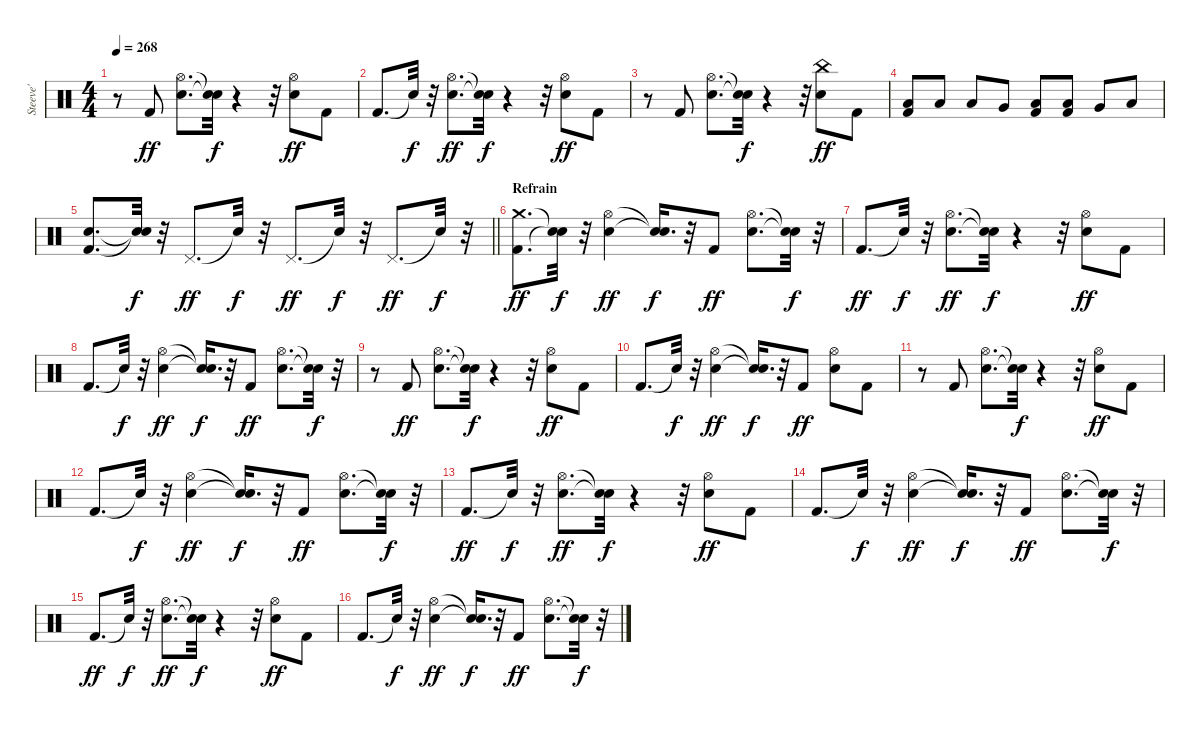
\track ("Steeve'" "Steeve'") {instrument percussion}
\staff {score}
\articulation defaults
\ts (4 4)
\tempo 268
\clef neutral
\ks c
r.8{dy f} "Kick (hit) 2".8{dy ff} ("Electric Snare (hit)" "Hi-Hat (open)").8{d} ("Snare (hit)"{t} "Snare (hit)"{t}).32{dy f} r.4 r.32 ("Electric Snare (hit)" "Hi-Hat (open)").8{dy ff} "Kick (hit) 2".8 |
"Kick (hit) 2".8{d} "Snare (hit)"{t}.32{dy f} r.32 ("Electric Snare (hit)" "Hi-Hat (open)").8{d dy ff} ("Snare (hit)"{t} "Snare (hit)"{t}).32{dy f} r.4 r.32 ("Electric Snare (hit)" "Hi-Hat (open)").8{dy ff} "Kick (hit) 2".8 |
r.8 "Kick (hit) 2".8 ("Electric Snare (hit)" "Hi-Hat (open)").8{d} ("Snare (hit)"{t} "Snare (hit)"{t}).32{dy f} r.4 r.32 ("Electric Snare (hit)" "China (hit)").8{dy ff} "Kick (hit) 2".8 |
("Kick (hit) 2" "Low Floor Tom (hit)").8 "Low Floor Tom (hit)".8 "Low Tom (hit)".8 "Very Low Tom (hit)".8 ("Kick (hit) 2" "Low Floor Tom (hit)").8 ("Kick (hit) 2" "Low Tom (hit)").8 "Very Low Tom (hit)".8 "Low Floor Tom (hit)".8 |
\barLineRight lightlight
("Kick (hit) 2" "Electric Snare (hit)").8{d} ("Snare (hit)"{t} "Snare (hit)"{t}).32{dy f} r.32 "Pedal Hi-Hat (hit)".8{d dy ff} "Snare (hit)"{t}.32{dy f} r.32 "Pedal Hi-Hat (hit)".8{d dy ff} "Snare (hit)"{t}.32{dy f} r.32 "Pedal Hi-Hat (hit)".8{d dy ff} "Snare (hit)"{t}.32{dy f} r.32 |
\section ("" "Refrain")
("Kick (hit) 2" "Crash medium (hit)").8{d dy ff} ("Snare (hit)"{t} "Snare (hit)"{t}).32{dy f} r.32 ("Electric Snare (hit)" "Hi-Hat (open)").4{dy ff} ("Snare (hit)"{t} "Snare (hit)"{t}).16{d dy f} r.32 "Kick (hit) 2".8{dy ff} ("Electric Snare (hit)" "Hi-Hat (open)").8{d} ("Snare (hit)"{t} "Snare (hit)"{t}).32{dy f} r.32 |
"Kick (hit) 2".8{d dy ff} "Snare (hit)"{t}.32{dy f} r.32 ("Electric Snare (hit)" "Hi-Hat (open)").8{d dy ff} ("Snare (hit)"{t} "Snare (hit)"{t}).32{dy f} r.4 r.32 ("Electric Snare (hit)" "Hi-Hat (open)").8{dy ff} "Kick (hit) 2".8 |
"Kick (hit) 2".8{d} "Snare (hit)"{t}.32{dy f} r.32 ("Electric Snare (hit)" "Hi-Hat (open)").4{dy ff} ("Snare (hit)"{t} "Snare (hit)"{t}).16{d dy f} r.32 "Kick (hit) 2".8{dy ff} ("Electric Snare (hit)" "Hi-Hat (open)").8{d} ("Snare (hit)"{t} "Snare (hit)"{t}).32{dy f} r.32 |
r.8 "Kick (hit) 2".8{dy ff} ("Electric Snare (hit)" "Hi-Hat (open)").8{d} ("Snare (hit)"{t} "Snare (hit)"{t}).32{dy f} r.4 r.32 ("Electric Snare (hit)" "Hi-Hat (open)").8{dy ff} "Kick (hit) 2".8 |
"Kick (hit) 2".8{d} "Snare (hit)"{t}.32{dy f} r.32 ("Electric Snare (hit)" "Hi-Hat (open)").4{dy ff} ("Snare (hit)"{t} "Snare (hit)"{t}).16{d dy f} r.32 "Kick (hit) 2".8{dy ff} ("Electric Snare (hit)" "Hi-Hat (open)").8 "Kick (hit) 2".8 |
r.8 "Kick (hit) 2".8 ("Electric Snare (hit)" "Hi-Hat (open)").8{d} ("Snare (hit)"{t} "Snare (hit)"{t}).32{dy f} r.4 r.32 ("Electric Snare (hit)" "Hi-Hat (open)").8{dy ff} "Kick (hit) 2".8 |
"Kick (hit) 2".8{d} "Snare (hit)"{t}.32{dy f} r.32 ("Electric Snare (hit)" "Hi-Hat (open)").4{dy ff} ("Snare (hit)"{t} "Snare (hit)"{t}).16{d dy f} r.32 "Kick (hit) 2".8{dy ff} ("Electric Snare (hit)" "Hi-Hat (open)").8{d} ("Snare (hit)"{t} "Snare (hit)"{t}).32{dy f} r.32 |
"Kick (hit) 2".8{d dy ff} "Snare (hit)"{t}.32{dy f} r.32 ("Electric Snare (hit)" "Hi-Hat (open)").8{d dy ff} ("Snare (hit)"{t} "Snare (hit)"{t}).32{dy f} r.4 r.32 ("Electric Snare (hit)" "Hi-Hat (open)").8{dy ff} "Kick (hit) 2".8 |
"Kick (hit) 2".8{d} "Snare (hit)"{t}.32{dy f} r.32 ("Electric Snare (hit)" "Hi-Hat (open)").4{dy ff} ("Snare (hit)"{t} "Snare (hit)"{t}).16{d dy f} r.32 "Kick (hit) 2".8{dy ff} ("Electric Snare (hit)" "Hi-Hat (open)").8{d} ("Snare (hit)"{t} "Snare (hit)"{t}).32{dy f} r.32 |
"Kick (hit) 2".8{d dy ff} "Snare (hit)"{t}.32{dy f} r.32 ("Electric Snare (hit)" "Hi-Hat (open)").8{d dy ff} ("Snare (hit)"{t} "Snare (hit)"{t}).32{dy f} r.4 r.32 ("Electric Snare (hit)" "Hi-Hat (open)").8{dy ff} "Kick (hit) 2".8 |
"Kick (hit) 2".8{d} "Snare (hit)"{t}.32{dy f} r.32 ("Electric Snare (hit)" "Hi-Hat (open)").4{dy ff} ("Snare (hit)"{t} "Snare (hit)"{t}).16{d dy f} r.32 "Kick (hit) 2".8{dy ff} ("Electric Snare (hit)" "Hi-Hat (open)").8{d} ("Snare (hit)"{t} "Snare (hit)"{t}).32{dy f} r.32
